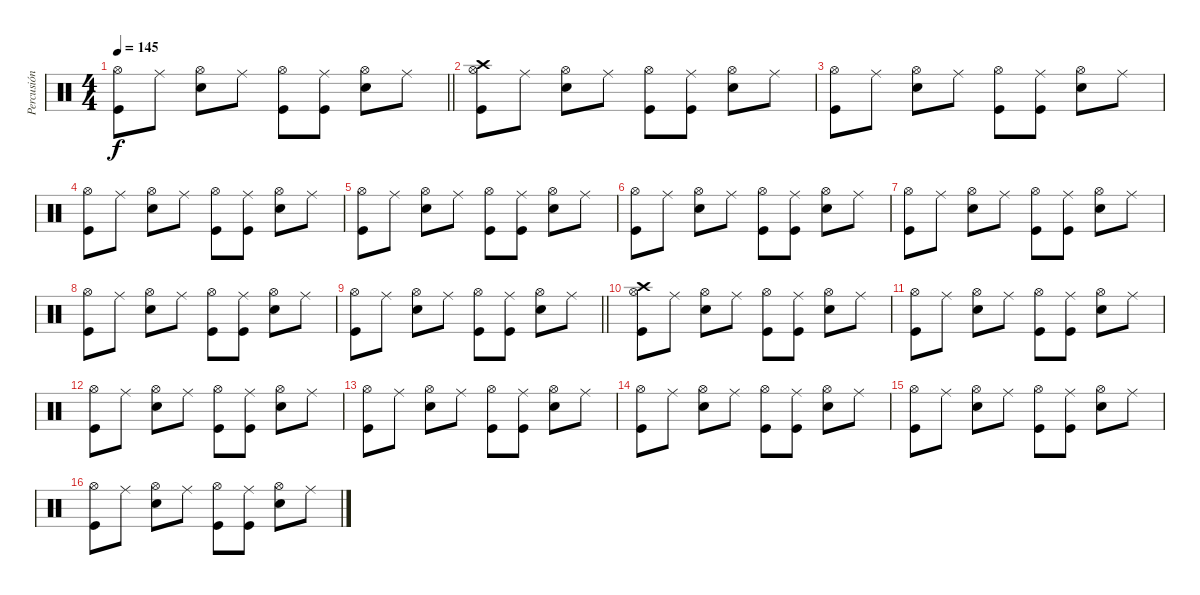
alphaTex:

\track ("Percusión" "Percusión") {instrument percussion}
\staff {score}
\articulation defaults
\ts (4 4)
\tempo 145
\clef neutral
\barLineRight lightlight
\ks c
("Hi-Hat (open)" "Kick (hit)").8{dy f} "Ride (middle)".8 ("Hi-Hat (open)" "Electric Snare (hit)").8 "Ride (middle)".8 ("Hi-Hat (open)" "Kick (hit)").8 ("Ride (middle)" "Kick (hit)").8 ("Hi-Hat (open)" "Electric Snare (hit)").8 "Ride (middle)".8 |
\section ("" "")
("Crash high (hit)" "Hi-Hat (open)" "Kick (hit)").8 "Ride (middle)".8 ("Hi-Hat (open)" "Electric Snare (hit)").8 "Ride (middle)".8 ("Hi-Hat (open)" "Kick (hit)").8 ("Ride (middle)" "Kick (hit)").8 ("Hi-Hat (open)" "Electric Snare (hit)").8 "Ride (middle)".8 |
("Hi-Hat (open)" "Kick (hit)").8 "Ride (middle)".8 ("Hi-Hat (open)" "Electric Snare (hit)").8 "Ride (middle)".8 ("Hi-Hat (open)" "Kick (hit)").8 ("Ride (middle)" "Kick (hit)").8 ("Hi-Hat (open)" "Electric Snare (hit)").8 "Ride (middle)".8 |
("Hi-Hat (open)" "Kick (hit)").8 "Ride (middle)".8 ("Hi-Hat (open)" "Electric Snare (hit)").8 "Ride (middle)".8 ("Hi-Hat (open)" "Kick (hit)").8 ("Ride (middle)" "Kick (hit)").8 ("Hi-Hat (open)" "Electric Snare (hit)").8 "Ride (middle)".8 |
("Hi-Hat (open)" "Kick (hit)").8 "Ride (middle)".8 ("Hi-Hat (open)" "Electric Snare (hit)").8 "Ride (middle)".8 ("Hi-Hat (open)" "Kick (hit)").8 ("Ride (middle)" "Kick (hit)").8 ("Hi-Hat (open)" "Electric Snare (hit)").8 "Ride (middle)".8 |
("Hi-Hat (open)" "Kick (hit)").8 "Ride (middle)".8 ("Hi-Hat (open)" "Electric Snare (hit)").8 "Ride (middle)".8 ("Hi-Hat (open)" "Kick (hit)").8 ("Ride (middle)" "Kick (hit)").8 ("Hi-Hat (open)" "Electric Snare (hit)").8 "Ride (middle)".8 |
("Hi-Hat (open)" "Kick (hit)").8 "Ride (middle)".8 ("Hi-Hat (open)" "Electric Snare (hit)").8 "Ride (middle)".8 ("Hi-Hat (open)" "Kick (hit)").8 ("Ride (middle)" "Kick (hit)").8 ("Hi-Hat (open)" "Electric Snare (hit)").8 "Ride (middle)".8 |
("Hi-Hat (open)" "Kick (hit)").8 "Ride (middle)".8 ("Hi-Hat (open)" "Electric Snare (hit)").8 "Ride (middle)".8 ("Hi-Hat (open)" "Kick (hit)").8 ("Ride (middle)" "Kick (hit)").8 ("Hi-Hat (open)" "Electric Snare (hit)").8 "Ride (middle)".8 |
\barLineRight lightlight
("Hi-Hat (open)" "Kick (hit)").8 "Ride (middle)".8 ("Hi-Hat (open)" "Electric Snare (hit)").8 "Ride (middle)".8 ("Hi-Hat (open)" "Kick (hit)").8 ("Ride (middle)" "Kick (hit)").8 ("Hi-Hat (open)" "Electric Snare (hit)").8 "Ride (middle)".8 |
\section ("" "")
("Crash high (hit)" "Hi-Hat (open)" "Kick (hit)").8 "Ride (middle)".8 ("Hi-Hat (open)" "Electric Snare (hit)").8 "Ride (middle)".8 ("Hi-Hat (open)" "Kick (hit)").8 ("Ride (middle)" "Kick (hit)").8 ("Hi-Hat (open)" "Electric Snare (hit)").8 "Ride (middle)".8 |
("Hi-Hat (open)" "Kick (hit)").8 "Ride (middle)".8 ("Hi-Hat (open)" "Electric Snare (hit)").8 "Ride (middle)".8 ("Hi-Hat (open)" "Kick (hit)").8 ("Ride (middle)" "Kick (hit)").8 ("Hi-Hat (open)" "Electric Snare (hit)").8 "Ride (middle)".8 |
("Hi-Hat (open)" "Kick (hit)").8 "Ride (middle)".8 ("Hi-Hat (open)" "Electric Snare (hit)").8 "Ride (middle)".8 ("Hi-Hat (open)" "Kick (hit)").8 ("Ride (middle)" "Kick (hit)").8 ("Hi-Hat (open)" "Electric Snare (hit)").8 "Ride (middle)".8 |
("Hi-Hat (open)" "Kick (hit)").8 "Ride (middle)".8 ("Hi-Hat (open)" "Electric Snare (hit)").8 "Ride (middle)".8 ("Hi-Hat (open)" "Kick (hit)").8 ("Ride (middle)" "Kick (hit)").8 ("Hi-Hat (open)" "Electric Snare (hit)").8 "Ride (middle)".8 |
("Hi-Hat (open)" "Kick (hit)").8 "Ride (middle)".8 ("Hi-Hat (open)" "Electric Snare (hit)").8 "Ride (middle)".8 ("Hi-Hat (open)" "Kick (hit)").8 ("Ride (middle)" "Kick (hit)").8 ("Hi-Hat (open)" "Electric Snare (hit)").8 "Ride (middle)".8 |
("Hi-Hat (open)" "Kick (hit)").8 "Ride (middle)".8 ("Hi-Hat (open)" "Electric Snare (hit)").8 "Ride (middle)".8 ("Hi-Hat (open)" "Kick (hit)").8 ("Ride (middle)" "Kick (hit)").8 ("Hi-Hat (open)" "Electric Snare (hit)").8 "Ride (middle)".8 |
("Hi-Hat (open)" "Kick (hit)").8 "Ride (middle)".8 ("Hi-Hat (open)" "Electric Snare (hit)").8 "Ride (middle)".8 ("Hi-Hat (open)" "Kick (hit)").8 ("Ride (middle)" "Kick (hit)").8 ("Hi-Hat (open)" "Electric Snare (hit)").8 "Ride (middle)".8
